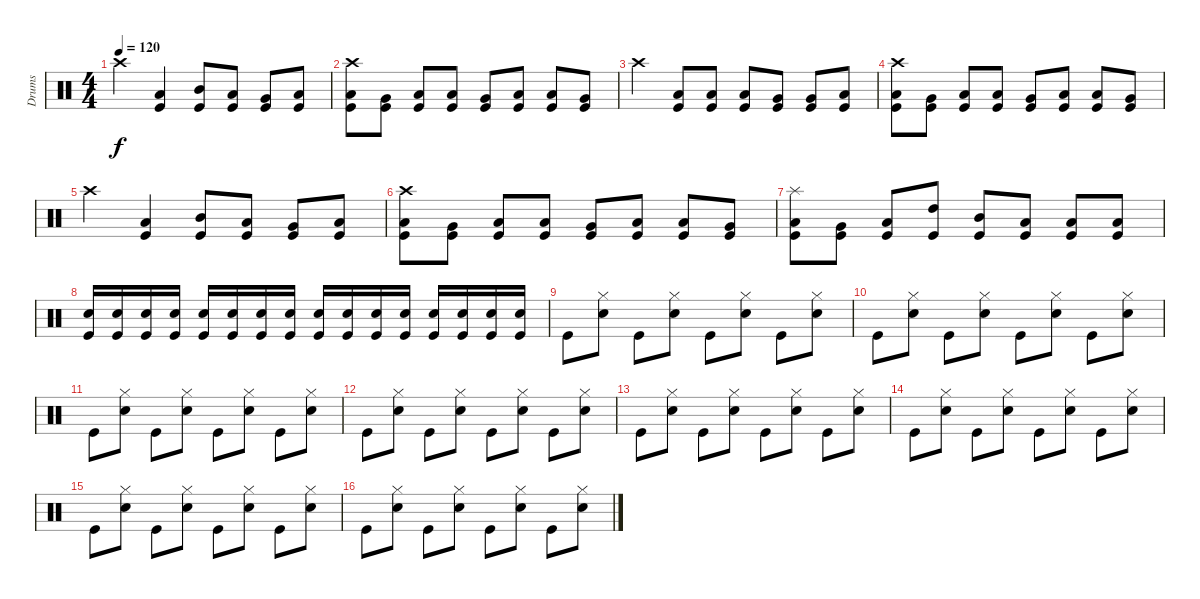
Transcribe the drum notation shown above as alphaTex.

\track ("Drums" "Drums") {instrument percussion}
\staff {score}
\articulation defaults
\ts (4 4)
\tempo 120
\clef neutral
\ks c "Crash high (hit)".4{dy f}
("Low Tom (hit)" "Kick (hit)").4 ("Mid Tom (hit)" "Kick (hit)").8 ("Low Tom (hit)" "Kick (hit)").8 ("Very Low Tom (hit)" "Kick (hit)").8 ("Low Floor Tom (hit)" "Kick (hit)").8 |
("Crash high (hit)" "Low Tom (hit)" "Kick (hit)").8 ("Very Low Tom (hit)" "Kick (hit)").8 ("Low Floor Tom (hit)" "Kick (hit)").8 ("Low Tom (hit)" "Kick (hit)").8 ("Very Low Tom (hit)" "Kick (hit)").8 ("Low Floor Tom (hit)" "Kick (hit)").8 ("Low Tom (hit)" "Kick (hit)").8 ("Very Low Tom (hit)" "Kick (hit)").8 |
"Crash high (hit)".4 ("Low Tom (hit)" "Kick (hit)").8 ("Low Tom (hit)" "Kick (hit)").8 ("Low Tom (hit)" "Kick (hit)").8 ("Very Low Tom (hit)" "Kick (hit)").8 ("Very Low Tom (hit)" "Kick (hit)").8 ("Low Floor Tom (hit)" "Kick (hit)").8 |
("Crash high (hit)" "Low Tom (hit)" "Kick (hit)").8 ("Very Low Tom (hit)" "Kick (hit)").8 ("Low Floor Tom (hit)" "Kick (hit)").8 ("Low Tom (hit)" "Kick (hit)").8 ("Very Low Tom (hit)" "Kick (hit)").8 ("Low Floor Tom (hit)" "Kick (hit)").8 ("Low Tom (hit)" "Kick (hit)").8 ("Very Low Tom (hit)" "Kick (hit)").8 |
"Crash high (hit)".4 ("Low Tom (hit)" "Kick (hit)").4 ("Mid Tom (hit)" "Kick (hit)").8 ("Low Tom (hit)" "Kick (hit)").8 ("Very Low Tom (hit)" "Kick (hit)").8 ("Low Floor Tom (hit)" "Kick (hit)").8 |
("Crash high (hit)" "Low Tom (hit)" "Kick (hit)").8 ("Very Low Tom (hit)" "Kick (hit)").8 ("Low Floor Tom (hit)" "Kick (hit)").8 ("Low Tom (hit)" "Kick (hit)").8 ("Very Low Tom (hit)" "Kick (hit)").8 ("Low Floor Tom (hit)" "Kick (hit)").8 ("Low Tom (hit)" "Kick (hit)").8 ("Very Low Tom (hit)" "Kick (hit)").8 |
("Splash (hit)" "Low Floor Tom (hit)" "Kick (hit)").8 ("Very Low Tom (hit)" "Kick (hit)").8 ("Low Tom (hit)" "Kick (hit)").8 ("High Tom (hit)" "Kick (hit)").8 ("Mid Tom (hit)" "Kick (hit)").8 ("Low Tom (hit)" "Kick (hit)").8 ("Low Floor Tom (hit)" "Kick (hit)").8 ("Low Floor Tom (hit)" "Kick (hit)").8 |
("Snare (hit) 2" "Kick (hit)").16 ("Snare (hit) 2" "Kick (hit)").16 ("Snare (hit) 2" "Kick (hit)").16 ("Snare (hit) 2" "Kick (hit)").16 ("Snare (hit) 2" "Kick (hit)").16 ("Snare (hit) 2" "Kick (hit)").16 ("Snare (hit) 2" "Kick (hit)").16 ("Snare (hit) 2" "Kick (hit)").16 ("Snare (hit) 2" "Kick (hit)").16 ("Snare (hit) 2" "Kick (hit)").16 ("Snare (hit) 2" "Kick (hit)").16 ("Snare (hit) 2" "Kick (hit)").16 ("Snare (hit) 2" "Kick (hit)").16 ("Snare (hit) 2" "Kick (hit)").16 ("Snare (hit) 2" "Kick (hit)").16 ("Snare (hit) 2" "Kick (hit)").16 |
"Kick (hit)".8 ("Hi-Hat (closed)" "Snare (hit) 2").8 "Kick (hit)".8 ("Hi-Hat (closed)" "Snare (hit) 2").8 "Kick (hit)".8 ("Hi-Hat (closed)" "Snare (hit) 2").8 "Kick (hit)".8 ("Hi-Hat (closed)" "Snare (hit) 2").8 |
"Kick (hit)".8 ("Hi-Hat (closed)" "Snare (hit) 2").8 "Kick (hit)".8 ("Hi-Hat (closed)" "Snare (hit) 2").8 "Kick (hit)".8 ("Hi-Hat (closed)" "Snare (hit) 2").8 "Kick (hit)".8 ("Hi-Hat (closed)" "Snare (hit) 2").8 |
"Kick (hit)".8 ("Hi-Hat (closed)" "Snare (hit) 2").8 "Kick (hit)".8 ("Hi-Hat (closed)" "Snare (hit) 2").8 "Kick (hit)".8 ("Hi-Hat (closed)" "Snare (hit) 2").8 "Kick (hit)".8 ("Hi-Hat (closed)" "Snare (hit) 2").8 |
"Kick (hit)".8 ("Hi-Hat (closed)" "Snare (hit) 2").8 "Kick (hit)".8 ("Hi-Hat (closed)" "Snare (hit) 2").8 "Kick (hit)".8 ("Hi-Hat (closed)" "Snare (hit) 2").8 "Kick (hit)".8 ("Hi-Hat (closed)" "Snare (hit) 2").8 |
"Kick (hit)".8 ("Hi-Hat (closed)" "Snare (hit) 2").8 "Kick (hit)".8 ("Hi-Hat (closed)" "Snare (hit) 2").8 "Kick (hit)".8 ("Hi-Hat (closed)" "Snare (hit) 2").8 "Kick (hit)".8 ("Hi-Hat (closed)" "Snare (hit) 2").8 |
"Kick (hit)".8 ("Hi-Hat (closed)" "Snare (hit) 2").8 "Kick (hit)".8 ("Hi-Hat (closed)" "Snare (hit) 2").8 "Kick (hit)".8 ("Hi-Hat (closed)" "Snare (hit) 2").8 "Kick (hit)".8 ("Hi-Hat (closed)" "Snare (hit) 2").8 |
"Kick (hit)".8 ("Hi-Hat (closed)" "Snare (hit) 2").8 "Kick (hit)".8 ("Hi-Hat (closed)" "Snare (hit) 2").8 "Kick (hit)".8 ("Hi-Hat (closed)" "Snare (hit) 2").8 "Kick (hit)".8 ("Hi-Hat (closed)" "Snare (hit) 2").8 |
"Kick (hit)".8 ("Hi-Hat (closed)" "Snare (hit) 2").8 "Kick (hit)".8 ("Hi-Hat (closed)" "Snare (hit) 2").8 "Kick (hit)".8 ("Hi-Hat (closed)" "Snare (hit) 2").8 "Kick (hit)".8 ("Hi-Hat (closed)" "Snare (hit) 2").8
